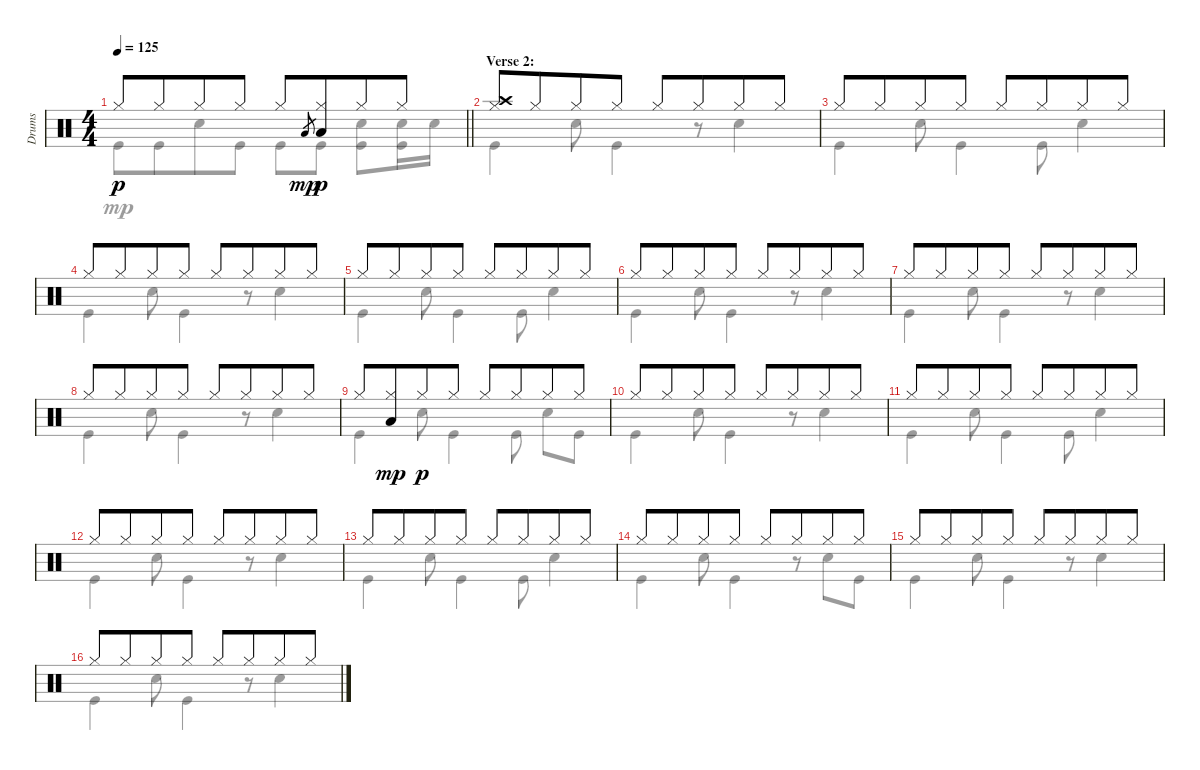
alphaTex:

\track ("Drums" "Drums") {instrument percussion}
\staff {score}
\articulation defaults
\voice
\ts (4 4)
\tempo 125
\clef neutral
\barLineRight lightlight
\ks c "Hi-Hat (closed)".8{dy p} "Hi-Hat (closed)".8{beam merge} "Hi-Hat (closed)".8 "Hi-Hat (closed)".8 "Hi-Hat (closed)".8 "Low Tom (hit)".8{gr dy mp}
("Hi-Hat (closed)" "Low Tom (hit)").8{dy p beam merge} "Hi-Hat (closed)".8 "Hi-Hat (closed)".8 |
\section ("" "Verse 2:")
("Hi-Hat (closed)" "Crash high (hit)").8 "Hi-Hat (closed)".8{beam merge} "Hi-Hat (closed)".8 "Hi-Hat (closed)".8 "Hi-Hat (closed)".8 "Hi-Hat (closed)".8{beam merge} "Hi-Hat (closed)".8 "Hi-Hat (closed)".8 |
"Hi-Hat (closed)".8 "Hi-Hat (closed)".8{beam merge} "Hi-Hat (closed)".8 "Hi-Hat (closed)".8 "Hi-Hat (closed)".8 "Hi-Hat (closed)".8{beam merge} "Hi-Hat (closed)".8 "Hi-Hat (closed)".8 |
"Hi-Hat (closed)".8 "Hi-Hat (closed)".8{beam merge} "Hi-Hat (closed)".8 "Hi-Hat (closed)".8 "Hi-Hat (closed)".8 "Hi-Hat (closed)".8{beam merge} "Hi-Hat (closed)".8 "Hi-Hat (closed)".8 |
"Hi-Hat (closed)".8 "Hi-Hat (closed)".8{beam merge} "Hi-Hat (closed)".8 "Hi-Hat (closed)".8 "Hi-Hat (closed)".8 "Hi-Hat (closed)".8{beam merge} "Hi-Hat (closed)".8 "Hi-Hat (closed)".8 |
"Hi-Hat (closed)".8 "Hi-Hat (closed)".8{beam merge} "Hi-Hat (closed)".8 "Hi-Hat (closed)".8 "Hi-Hat (closed)".8 "Hi-Hat (closed)".8{beam merge} "Hi-Hat (closed)".8 "Hi-Hat (closed)".8 |
"Hi-Hat (closed)".8 "Hi-Hat (closed)".8{beam merge} "Hi-Hat (closed)".8 "Hi-Hat (closed)".8 "Hi-Hat (closed)".8 "Hi-Hat (closed)".8{beam merge} "Hi-Hat (closed)".8 "Hi-Hat (closed)".8 |
"Hi-Hat (closed)".8 "Hi-Hat (closed)".8{beam merge} "Hi-Hat (closed)".8 "Hi-Hat (closed)".8 "Hi-Hat (closed)".8 "Hi-Hat (closed)".8{beam merge} "Hi-Hat (closed)".8 "Hi-Hat (closed)".8 |
"Hi-Hat (closed)".8 ("Hi-Hat (closed)" "Low Tom (hit)").8{dy mp beam merge} "Hi-Hat (closed)".8{dy p} "Hi-Hat (closed)".8 "Hi-Hat (closed)".8 "Hi-Hat (closed)".8{beam merge} "Hi-Hat (closed)".8 "Hi-Hat (closed)".8 |
"Hi-Hat (closed)".8 "Hi-Hat (closed)".8{beam merge} "Hi-Hat (closed)".8 "Hi-Hat (closed)".8 "Hi-Hat (closed)".8 "Hi-Hat (closed)".8{beam merge} "Hi-Hat (closed)".8 "Hi-Hat (closed)".8 |
"Hi-Hat (closed)".8 "Hi-Hat (closed)".8{beam merge} "Hi-Hat (closed)".8 "Hi-Hat (closed)".8 "Hi-Hat (closed)".8 "Hi-Hat (closed)".8{beam merge} "Hi-Hat (closed)".8 "Hi-Hat (closed)".8 |
"Hi-Hat (closed)".8 "Hi-Hat (closed)".8{beam merge} "Hi-Hat (closed)".8 "Hi-Hat (closed)".8 "Hi-Hat (closed)".8 "Hi-Hat (closed)".8{beam merge} "Hi-Hat (closed)".8 "Hi-Hat (closed)".8 |
"Hi-Hat (closed)".8 "Hi-Hat (closed)".8{beam merge} "Hi-Hat (closed)".8 "Hi-Hat (closed)".8 "Hi-Hat (closed)".8 "Hi-Hat (closed)".8{beam merge} "Hi-Hat (closed)".8 "Hi-Hat (closed)".8 |
"Hi-Hat (closed)".8 "Hi-Hat (closed)".8{beam merge} "Hi-Hat (closed)".8 "Hi-Hat (closed)".8 "Hi-Hat (closed)".8 "Hi-Hat (closed)".8{beam merge} "Hi-Hat (closed)".8 "Hi-Hat (closed)".8 |
"Hi-Hat (closed)".8 "Hi-Hat (closed)".8{beam merge} "Hi-Hat (closed)".8 "Hi-Hat (closed)".8 "Hi-Hat (closed)".8 "Hi-Hat (closed)".8{beam merge} "Hi-Hat (closed)".8 "Hi-Hat (closed)".8 |
"Hi-Hat (closed)".8 "Hi-Hat (closed)".8{beam merge} "Hi-Hat (closed)".8 "Hi-Hat (closed)".8 "Hi-Hat (closed)".8 "Hi-Hat (closed)".8{beam merge} "Hi-Hat (closed)".8 "Hi-Hat (closed)".8
\voice
\clef neutral
\ottava regular
\simile none
\barLineRight lightlight
\ks c "Kick (hit)".8{dy mp} "Kick (hit)".8{beam merge} "Snare (hit) 2".8 "Kick (hit)".8 "Kick (hit)".8 "Kick (hit)".8
("Snare (hit) 2" "Kick (hit)").8 ("Snare (hit) 2" "Kick (hit)").16 "Snare (hit) 2".16 |
"Kick (hit)".4 "Snare (hit) 2".8 "Kick (hit)".4 r.8 "Snare (hit) 2".4 |
"Kick (hit)".4 "Snare (hit) 2".8 "Kick (hit)".4 "Kick (hit)".8 "Snare (hit) 2".4 |
"Kick (hit)".4 "Snare (hit) 2".8 "Kick (hit)".4 r.8 "Snare (hit) 2".4 |
"Kick (hit)".4 "Snare (hit) 2".8 "Kick (hit)".4 "Kick (hit)".8 "Snare (hit) 2".4 |
"Kick (hit)".4 "Snare (hit) 2".8 "Kick (hit)".4 r.8 "Snare (hit) 2".4 |
"Kick (hit)".4 "Snare (hit) 2".8 "Kick (hit)".4 r.8 "Snare (hit) 2".4 |
"Kick (hit)".4 "Snare (hit) 2".8 "Kick (hit)".4 r.8 "Snare (hit) 2".4 |
"Kick (hit)".4 "Snare (hit) 2".8 "Kick (hit)".4 "Kick (hit)".8 "Snare (hit) 2".8 "Kick (hit)".8 |
"Kick (hit)".4 "Snare (hit) 2".8 "Kick (hit)".4 r.8 "Snare (hit) 2".4 |
"Kick (hit)".4 "Snare (hit) 2".8 "Kick (hit)".4 "Kick (hit)".8 "Snare (hit) 2".4 |
"Kick (hit)".4 "Snare (hit) 2".8 "Kick (hit)".4 r.8 "Snare (hit) 2".4 |
"Kick (hit)".4 "Snare (hit) 2".8 "Kick (hit)".4 "Kick (hit)".8 "Snare (hit) 2".4 |
"Kick (hit)".4 "Snare (hit) 2".8 "Kick (hit)".4 r.8 "Snare (hit) 2".8 "Kick (hit)".8 |
"Kick (hit)".4 "Snare (hit) 2".8 "Kick (hit)".4 r.8 "Snare (hit) 2".4 |
"Kick (hit)".4 "Snare (hit) 2".8 "Kick (hit)".4 r.8 "Snare (hit) 2".4
